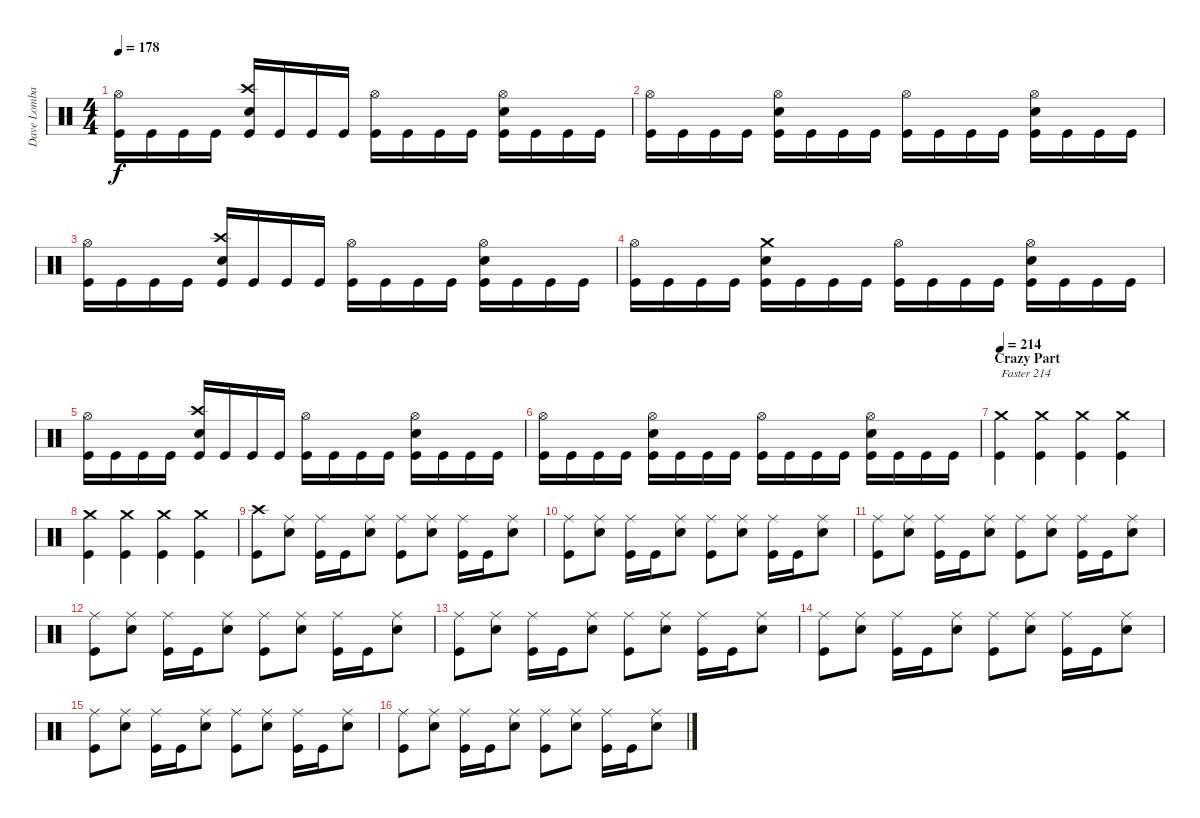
\track ("Dave Lombardo" "Dave Lomba") {instrument percussion}
\staff {score}
\articulation defaults
\ts (4 4)
\tempo 178
\clef neutral
\ks c
("Hi-Hat (open)" "Kick (hit)").16{dy f} "Kick (hit)".16 "Kick (hit)".16 "Kick (hit)".16 ("Crash high (hit)" "Snare (hit) 2" "Kick (hit)").16 "Kick (hit)".16 "Kick (hit)".16 "Kick (hit)".16 ("Hi-Hat (open)" "Kick (hit)").16 "Kick (hit)".16 "Kick (hit)".16 "Kick (hit)".16 ("Hi-Hat (open)" "Snare (hit) 2" "Kick (hit)").16 "Kick (hit)".16 "Kick (hit)".16 "Kick (hit)".16 |
("Hi-Hat (open)" "Kick (hit)").16 "Kick (hit)".16 "Kick (hit)".16 "Kick (hit)".16 ("Hi-Hat (open)" "Snare (hit) 2" "Kick (hit)").16 "Kick (hit)".16 "Kick (hit)".16 "Kick (hit)".16 ("Hi-Hat (open)" "Kick (hit)").16 "Kick (hit)".16 "Kick (hit)".16 "Kick (hit)".16 ("Hi-Hat (open)" "Snare (hit) 2" "Kick (hit)").16 "Kick (hit)".16 "Kick (hit)".16 "Kick (hit)".16 |
("Hi-Hat (open)" "Kick (hit)").16 "Kick (hit)".16 "Kick (hit)".16 "Kick (hit)".16 ("Crash high (hit)" "Snare (hit) 2" "Kick (hit)").16 "Kick (hit)".16 "Kick (hit)".16 "Kick (hit)".16 ("Hi-Hat (open)" "Kick (hit)").16 "Kick (hit)".16 "Kick (hit)".16 "Kick (hit)".16 ("Hi-Hat (open)" "Snare (hit) 2" "Kick (hit)").16 "Kick (hit)".16 "Kick (hit)".16 "Kick (hit)".16 |
("Hi-Hat (open)" "Kick (hit)").16 "Kick (hit)".16 "Kick (hit)".16 "Kick (hit)".16 ("Crash medium (hit)" "Snare (hit) 2" "Kick (hit)").16 "Kick (hit)".16 "Kick (hit)".16 "Kick (hit)".16 ("Hi-Hat (open)" "Kick (hit)").16 "Kick (hit)".16 "Kick (hit)".16 "Kick (hit)".16 ("Hi-Hat (open)" "Snare (hit) 2" "Kick (hit)").16 "Kick (hit)".16 "Kick (hit)".16 "Kick (hit)".16 |
("Hi-Hat (open)" "Kick (hit)").16 "Kick (hit)".16 "Kick (hit)".16 "Kick (hit)".16 ("Crash high (hit)" "Snare (hit) 2" "Kick (hit)").16 "Kick (hit)".16 "Kick (hit)".16 "Kick (hit)".16 ("Hi-Hat (open)" "Kick (hit)").16 "Kick (hit)".16 "Kick (hit)".16 "Kick (hit)".16 ("Hi-Hat (open)" "Snare (hit) 2" "Kick (hit)").16 "Kick (hit)".16 "Kick (hit)".16 "Kick (hit)".16 |
("Hi-Hat (open)" "Kick (hit)").16 "Kick (hit)".16 "Kick (hit)".16 "Kick (hit)".16 ("Hi-Hat (open)" "Snare (hit) 2" "Kick (hit)").16 "Kick (hit)".16 "Kick (hit)".16 "Kick (hit)".16 ("Hi-Hat (open)" "Kick (hit)").16 "Kick (hit)".16 "Kick (hit)".16 "Kick (hit)".16 ("Hi-Hat (open)" "Snare (hit) 2" "Kick (hit)").16 "Kick (hit)".16 "Kick (hit)".16 "Kick (hit)".16 |
\section ("" "Crazy Part")
\tempo 214
("Crash medium (hit)" "Kick (hit)").4{txt "Faster 214"} ("Crash medium (hit)" "Kick (hit)").4 ("Crash medium (hit)" "Kick (hit)").4 ("Crash medium (hit)" "Kick (hit)").4 |
("Crash medium (hit)" "Kick (hit)").4 ("Crash medium (hit)" "Kick (hit)").4 ("Crash medium (hit)" "Kick (hit)").4 ("Crash medium (hit)" "Kick (hit)").4 |
("Crash high (hit)" "Kick (hit)").8 ("Ride (middle)" "Snare (hit) 2").8 ("Ride (middle)" "Kick (hit)").16 "Kick (hit)".16 ("Ride (middle)" "Snare (hit) 2").8 ("Ride (middle)" "Kick (hit)").8 ("Ride (middle)" "Snare (hit) 2").8 ("Ride (middle)" "Kick (hit)").16 "Kick (hit)".16 ("Ride (middle)" "Snare (hit) 2").8 |
("Ride (middle)" "Kick (hit)").8 ("Ride (middle)" "Snare (hit) 2").8 ("Ride (middle)" "Kick (hit)").16 "Kick (hit)".16 ("Ride (middle)" "Snare (hit) 2").8 ("Ride (middle)" "Kick (hit)").8 ("Ride (middle)" "Snare (hit) 2").8 ("Ride (middle)" "Kick (hit)").16 "Kick (hit)".16 ("Ride (middle)" "Snare (hit) 2").8 |
("Ride (middle)" "Kick (hit)").8 ("Ride (middle)" "Snare (hit) 2").8 ("Ride (middle)" "Kick (hit)").16 "Kick (hit)".16 ("Ride (middle)" "Snare (hit) 2").8 ("Ride (middle)" "Kick (hit)").8 ("Ride (middle)" "Snare (hit) 2").8 ("Ride (middle)" "Kick (hit)").16 "Kick (hit)".16 ("Ride (middle)" "Snare (hit) 2").8 |
("Ride (middle)" "Kick (hit)").8 ("Ride (middle)" "Snare (hit) 2").8 ("Ride (middle)" "Kick (hit)").16 "Kick (hit)".16 ("Ride (middle)" "Snare (hit) 2").8 ("Ride (middle)" "Kick (hit)").8 ("Ride (middle)" "Snare (hit) 2").8 ("Ride (middle)" "Kick (hit)").16 "Kick (hit)".16 ("Ride (middle)" "Snare (hit) 2").8 |
("Ride (middle)" "Kick (hit)").8 ("Ride (middle)" "Snare (hit) 2").8 ("Ride (middle)" "Kick (hit)").16 "Kick (hit)".16 ("Ride (middle)" "Snare (hit) 2").8 ("Ride (middle)" "Kick (hit)").8 ("Ride (middle)" "Snare (hit) 2").8 ("Ride (middle)" "Kick (hit)").16 "Kick (hit)".16 ("Ride (middle)" "Snare (hit) 2").8 |
("Ride (middle)" "Kick (hit)").8 ("Ride (middle)" "Snare (hit) 2").8 ("Ride (middle)" "Kick (hit)").16 "Kick (hit)".16 ("Ride (middle)" "Snare (hit) 2").8 ("Ride (middle)" "Kick (hit)").8 ("Ride (middle)" "Snare (hit) 2").8 ("Ride (middle)" "Kick (hit)").16 "Kick (hit)".16 ("Ride (middle)" "Snare (hit) 2").8 |
("Ride (middle)" "Kick (hit)").8 ("Ride (middle)" "Snare (hit) 2").8 ("Ride (middle)" "Kick (hit)").16 "Kick (hit)".16 ("Ride (middle)" "Snare (hit) 2").8 ("Ride (middle)" "Kick (hit)").8 ("Ride (middle)" "Snare (hit) 2").8 ("Ride (middle)" "Kick (hit)").16 "Kick (hit)".16 ("Ride (middle)" "Snare (hit) 2").8 |
("Ride (middle)" "Kick (hit)").8 ("Ride (middle)" "Snare (hit) 2").8 ("Ride (middle)" "Kick (hit)").16 "Kick (hit)".16 ("Ride (middle)" "Snare (hit) 2").8 ("Ride (middle)" "Kick (hit)").8 ("Ride (middle)" "Snare (hit) 2").8 ("Ride (middle)" "Kick (hit)").16 "Kick (hit)".16 ("Ride (middle)" "Snare (hit) 2").8
